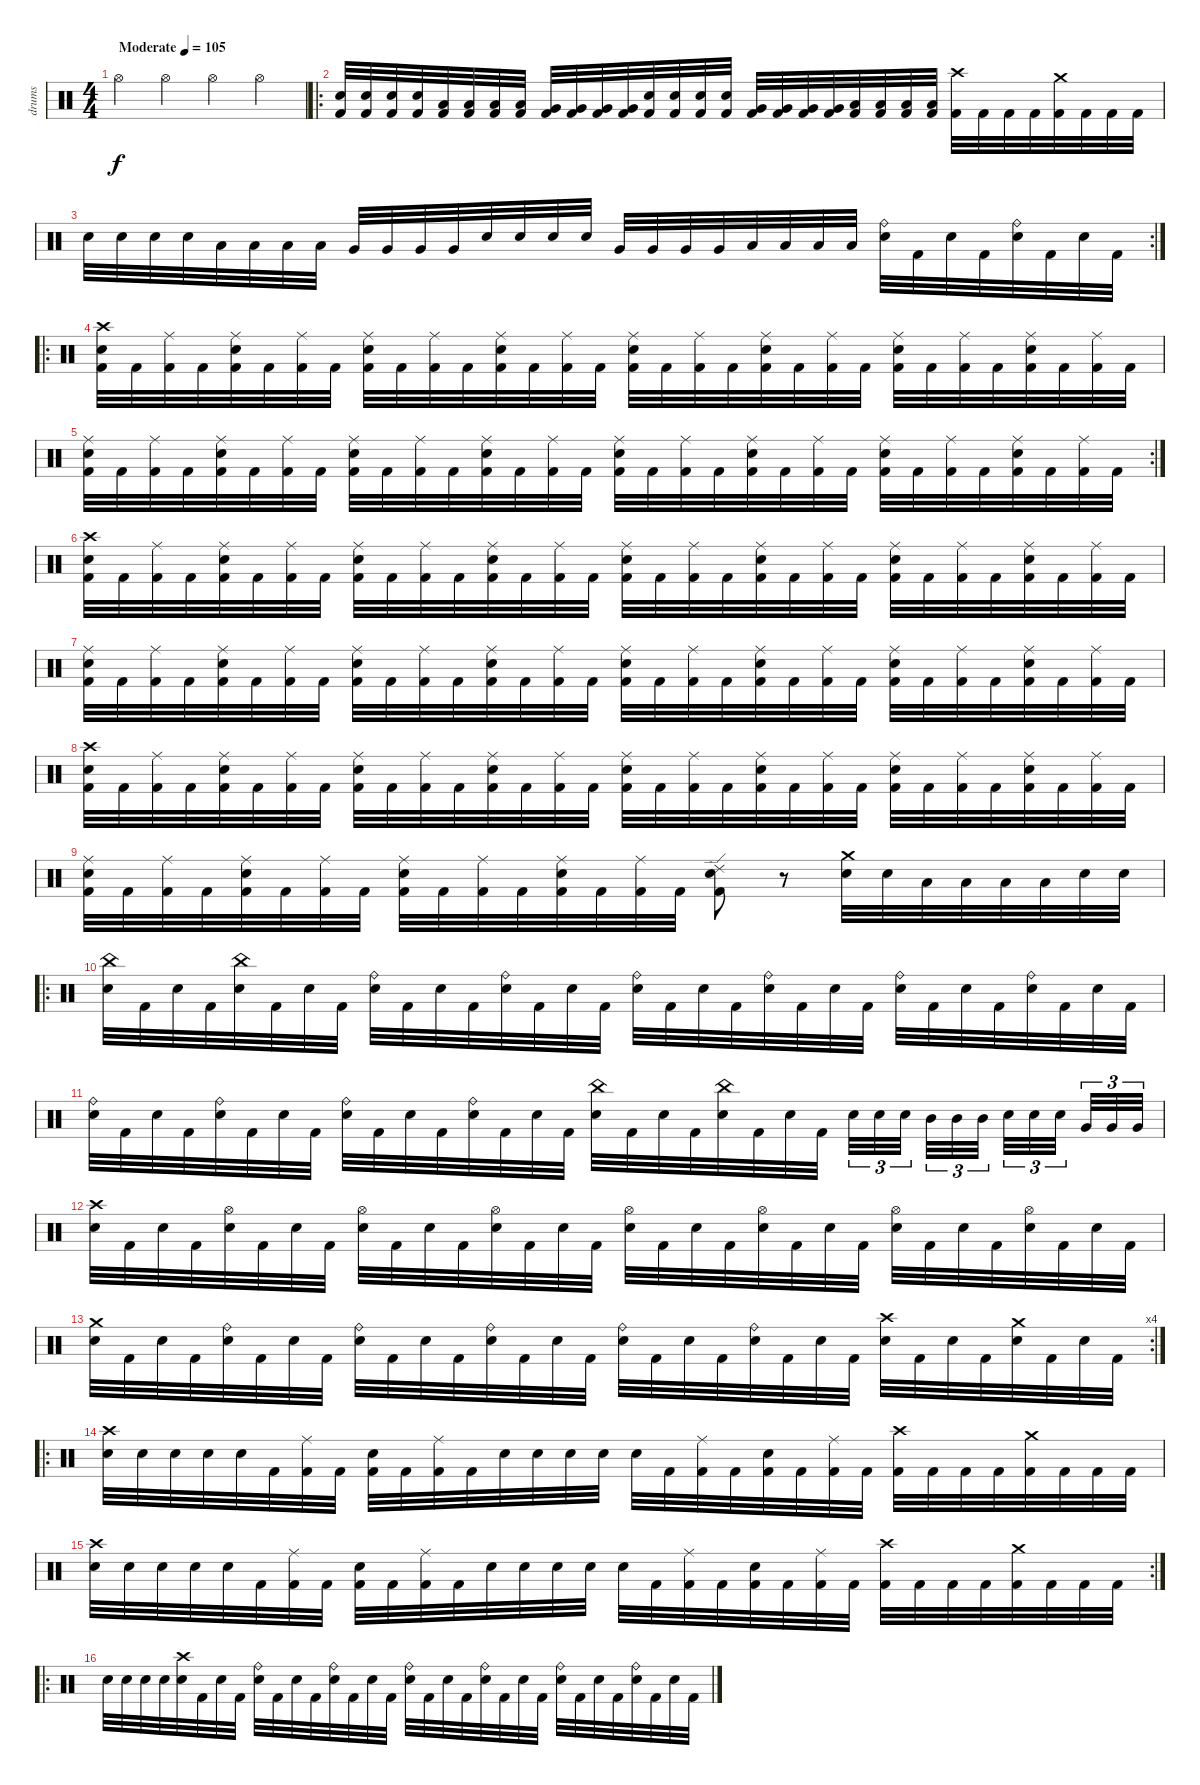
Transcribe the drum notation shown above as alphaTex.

\track ("drums" "drums") {instrument percussion}
\staff {score}
\articulation defaults
\ts (4 4)
\tempo (105 "Moderate")
\clef neutral
\ks c "Hi-Hat (open)".4{dy f} "Hi-Hat (open)".4 "Hi-Hat (open)".4 "Hi-Hat (open)".4
|
\ro
("Snare (hit) 2" "Kick (hit) 2").32 ("Snare (hit) 2" "Kick (hit) 2").32 ("Snare (hit) 2" "Kick (hit) 2").32 ("Snare (hit) 2" "Kick (hit) 2").32 ("Low Tom (hit)" "Kick (hit) 2").32 ("Low Tom (hit)" "Kick (hit) 2").32 ("Low Tom (hit)" "Kick (hit) 2").32 ("Low Tom (hit)" "Kick (hit) 2").32 ("Very Low Tom (hit)" "Kick (hit) 2").32 ("Very Low Tom (hit)" "Kick (hit) 2").32 ("Very Low Tom (hit)" "Kick (hit) 2").32 ("Very Low Tom (hit)" "Kick (hit) 2").32 ("Snare (hit) 2" "Kick (hit) 2").32 ("Snare (hit) 2" "Kick (hit) 2").32 ("Snare (hit) 2" "Kick (hit) 2").32 ("Snare (hit) 2" "Kick (hit) 2").32 ("Very Low Tom (hit)" "Kick (hit) 2").32 ("Very Low Tom (hit)" "Kick (hit) 2").32 ("Very Low Tom (hit)" "Kick (hit) 2").32 ("Very Low Tom (hit)" "Kick (hit) 2").32 ("Low Floor Tom (hit)" "Kick (hit) 2").32 ("Low Floor Tom (hit)" "Kick (hit) 2").32 ("Low Floor Tom (hit)" "Kick (hit) 2").32 ("Low Floor Tom (hit)" "Kick (hit) 2").32 ("Crash high (hit)" "Kick (hit) 2").32 "Kick (hit) 2".32 "Kick (hit) 2".32 "Kick (hit) 2".32 ("Crash medium (hit)" "Kick (hit) 2").32 "Kick (hit) 2".32 "Kick (hit) 2".32 "Kick (hit) 2".32 |
\rc 2 "Snare (hit) 2".32 "Snare (hit) 2".32 "Snare (hit) 2".32 "Snare (hit) 2".32 "Low Tom (hit)".32 "Low Tom (hit)".32 "Low Tom (hit)".32 "Low Tom (hit)".32 "Very Low Tom (hit)".32 "Very Low Tom (hit)".32 "Very Low Tom (hit)".32 "Very Low Tom (hit)".32 "Snare (hit) 2".32 "Snare (hit) 2".32 "Snare (hit) 2".32 "Snare (hit) 2".32 "Very Low Tom (hit)".32 "Very Low Tom (hit)".32 "Very Low Tom (hit)".32 "Very Low Tom (hit)".32 "Low Floor Tom (hit)".32 "Low Floor Tom (hit)".32 "Low Floor Tom (hit)".32 "Low Floor Tom (hit)".32
("Ride (bell)" "Snare (hit) 2").32 "Kick (hit) 2".32 "Snare (hit) 2".32 "Kick (hit) 2".32 ("Ride (bell)" "Snare (hit) 2").32 "Kick (hit) 2".32 "Snare (hit) 2".32 "Kick (hit) 2".32 |
\ro
("Crash high (hit)" "Snare (hit) 2" "Kick (hit) 2").32 "Kick (hit) 2".32 ("Ride (middle)" "Kick (hit) 2").32 "Kick (hit) 2".32 ("Ride (middle)" "Snare (hit) 2" "Kick (hit) 2").32 "Kick (hit) 2".32 ("Ride (middle)" "Kick (hit) 2").32 "Kick (hit) 2".32 ("Ride (middle)" "Snare (hit) 2" "Kick (hit) 2").32 "Kick (hit) 2".32 ("Ride (middle)" "Kick (hit) 2").32 "Kick (hit) 2".32 ("Ride (middle)" "Snare (hit) 2" "Kick (hit) 2").32 "Kick (hit) 2".32 ("Ride (middle)" "Kick (hit) 2").32 "Kick (hit) 2".32 ("Ride (middle)" "Snare (hit) 2" "Kick (hit) 2").32 "Kick (hit) 2".32 ("Ride (middle)" "Kick (hit) 2").32 "Kick (hit) 2".32 ("Ride (middle)" "Snare (hit) 2" "Kick (hit) 2").32 "Kick (hit) 2".32 ("Ride (middle)" "Kick (hit) 2").32 "Kick (hit) 2".32 ("Ride (middle)" "Snare (hit) 2" "Kick (hit) 2").32 "Kick (hit) 2".32 ("Ride (middle)" "Kick (hit) 2").32 "Kick (hit) 2".32 ("Ride (middle)" "Snare (hit) 2" "Kick (hit) 2").32 "Kick (hit) 2".32 ("Ride (middle)" "Kick (hit) 2").32 "Kick (hit) 2".32 |
\rc 2
("Ride (middle)" "Snare (hit) 2" "Kick (hit) 2").32 "Kick (hit) 2".32 ("Ride (middle)" "Kick (hit) 2").32 "Kick (hit) 2".32 ("Ride (middle)" "Snare (hit) 2" "Kick (hit) 2").32 "Kick (hit) 2".32 ("Ride (middle)" "Kick (hit) 2").32 "Kick (hit) 2".32 ("Ride (middle)" "Snare (hit) 2" "Kick (hit) 2").32 "Kick (hit) 2".32 ("Ride (middle)" "Kick (hit) 2").32 "Kick (hit) 2".32 ("Ride (middle)" "Snare (hit) 2" "Kick (hit) 2").32 "Kick (hit) 2".32 ("Ride (middle)" "Kick (hit) 2").32 "Kick (hit) 2".32 ("Ride (middle)" "Snare (hit) 2" "Kick (hit) 2").32 "Kick (hit) 2".32 ("Ride (middle)" "Kick (hit) 2").32 "Kick (hit) 2".32 ("Ride (middle)" "Snare (hit) 2" "Kick (hit) 2").32 "Kick (hit) 2".32 ("Ride (middle)" "Kick (hit) 2").32 "Kick (hit) 2".32 ("Ride (middle)" "Snare (hit) 2" "Kick (hit) 2").32 "Kick (hit) 2".32 ("Ride (middle)" "Kick (hit) 2").32 "Kick (hit) 2".32 ("Ride (middle)" "Snare (hit) 2" "Kick (hit) 2").32 "Kick (hit) 2".32 ("Ride (middle)" "Kick (hit) 2").32 "Kick (hit) 2".32 |
("Crash high (hit)" "Snare (hit) 2" "Kick (hit) 2").32 "Kick (hit) 2".32 ("Ride (middle)" "Kick (hit) 2").32 "Kick (hit) 2".32 ("Ride (middle)" "Snare (hit) 2" "Kick (hit) 2").32 "Kick (hit) 2".32 ("Ride (middle)" "Kick (hit) 2").32 "Kick (hit) 2".32 ("Ride (middle)" "Snare (hit) 2" "Kick (hit) 2").32 "Kick (hit) 2".32 ("Ride (middle)" "Kick (hit) 2").32 "Kick (hit) 2".32 ("Ride (middle)" "Snare (hit) 2" "Kick (hit) 2").32 "Kick (hit) 2".32 ("Ride (middle)" "Kick (hit) 2").32 "Kick (hit) 2".32 ("Ride (middle)" "Snare (hit) 2" "Kick (hit) 2").32 "Kick (hit) 2".32 ("Ride (middle)" "Kick (hit) 2").32 "Kick (hit) 2".32 ("Ride (middle)" "Snare (hit) 2" "Kick (hit) 2").32 "Kick (hit) 2".32 ("Ride (middle)" "Kick (hit) 2").32 "Kick (hit) 2".32 ("Ride (middle)" "Snare (hit) 2" "Kick (hit) 2").32 "Kick (hit) 2".32 ("Ride (middle)" "Kick (hit) 2").32 "Kick (hit) 2".32 ("Ride (middle)" "Snare (hit) 2" "Kick (hit) 2").32 "Kick (hit) 2".32 ("Ride (middle)" "Kick (hit) 2").32 "Kick (hit) 2".32 |
("Ride (middle)" "Snare (hit) 2" "Kick (hit) 2").32 "Kick (hit) 2".32 ("Ride (middle)" "Kick (hit) 2").32 "Kick (hit) 2".32 ("Ride (middle)" "Snare (hit) 2" "Kick (hit) 2").32 "Kick (hit) 2".32 ("Ride (middle)" "Kick (hit) 2").32 "Kick (hit) 2".32 ("Ride (middle)" "Snare (hit) 2" "Kick (hit) 2").32 "Kick (hit) 2".32 ("Ride (middle)" "Kick (hit) 2").32 "Kick (hit) 2".32 ("Ride (middle)" "Snare (hit) 2" "Kick (hit) 2").32 "Kick (hit) 2".32 ("Ride (middle)" "Kick (hit) 2").32 "Kick (hit) 2".32 ("Ride (middle)" "Snare (hit) 2" "Kick (hit) 2").32 "Kick (hit) 2".32 ("Ride (middle)" "Kick (hit) 2").32 "Kick (hit) 2".32 ("Ride (middle)" "Snare (hit) 2" "Kick (hit) 2").32 "Kick (hit) 2".32 ("Ride (middle)" "Kick (hit) 2").32 "Kick (hit) 2".32 ("Ride (middle)" "Snare (hit) 2" "Kick (hit) 2").32 "Kick (hit) 2".32 ("Ride (middle)" "Kick (hit) 2").32 "Kick (hit) 2".32 ("Ride (middle)" "Snare (hit) 2" "Kick (hit) 2").32 "Kick (hit) 2".32 ("Ride (middle)" "Kick (hit) 2").32 "Kick (hit) 2".32 |
("Crash high (hit)" "Snare (hit) 2" "Kick (hit) 2").32 "Kick (hit) 2".32 ("Ride (middle)" "Kick (hit) 2").32 "Kick (hit) 2".32 ("Ride (middle)" "Snare (hit) 2" "Kick (hit) 2").32 "Kick (hit) 2".32 ("Ride (middle)" "Kick (hit) 2").32 "Kick (hit) 2".32 ("Ride (middle)" "Snare (hit) 2" "Kick (hit) 2").32 "Kick (hit) 2".32 ("Ride (middle)" "Kick (hit) 2").32 "Kick (hit) 2".32 ("Ride (middle)" "Snare (hit) 2" "Kick (hit) 2").32 "Kick (hit) 2".32 ("Ride (middle)" "Kick (hit) 2").32 "Kick (hit) 2".32 ("Ride (middle)" "Snare (hit) 2" "Kick (hit) 2").32 "Kick (hit) 2".32 ("Ride (middle)" "Kick (hit) 2").32 "Kick (hit) 2".32 ("Ride (middle)" "Snare (hit) 2" "Kick (hit) 2").32 "Kick (hit) 2".32 ("Ride (middle)" "Kick (hit) 2").32 "Kick (hit) 2".32 ("Ride (middle)" "Snare (hit) 2" "Kick (hit) 2").32 "Kick (hit) 2".32 ("Ride (middle)" "Kick (hit) 2").32 "Kick (hit) 2".32 ("Ride (middle)" "Snare (hit) 2" "Kick (hit) 2").32 "Kick (hit) 2".32 ("Ride (middle)" "Kick (hit) 2").32 "Kick (hit) 2".32 |
("Ride (middle)" "Snare (hit) 2" "Kick (hit) 2").32 "Kick (hit) 2".32 ("Ride (middle)" "Kick (hit) 2").32 "Kick (hit) 2".32 ("Ride (middle)" "Snare (hit) 2" "Kick (hit) 2").32 "Kick (hit) 2".32 ("Ride (middle)" "Kick (hit) 2").32 "Kick (hit) 2".32 ("Ride (middle)" "Snare (hit) 2" "Kick (hit) 2").32 "Kick (hit) 2".32 ("Ride (middle)" "Kick (hit) 2").32 "Kick (hit) 2".32 ("Ride (middle)" "Snare (hit) 2" "Kick (hit) 2").32 "Kick (hit) 2".32 ("Ride (middle)" "Kick (hit) 2").32 "Kick (hit) 2".32 ("Ride (edge) 2" "Snare (hit) 2" "Kick (hit) 2").8 r.8 ("Crash medium (hit)" "Snare (hit) 2").32 "Snare (hit) 2".32 "Low Tom (hit)".32 "Low Tom (hit)".32 "Low Tom (hit)".32 "Low Tom (hit)".32 "Snare (hit) 2".32 "Snare (hit) 2".32 |
\ro
("China (hit)" "Snare (hit) 2").32 "Kick (hit) 2".32 "Snare (hit) 2".32 "Kick (hit) 2".32 ("China (hit)" "Snare (hit) 2").32 "Kick (hit) 2".32 "Snare (hit) 2".32 "Kick (hit) 2".32 ("Ride (bell)" "Snare (hit) 2").32 "Kick (hit) 2".32 "Snare (hit) 2".32 "Kick (hit) 2".32 ("Ride (bell)" "Snare (hit) 2").32 "Kick (hit) 2".32 "Snare (hit) 2".32 "Kick (hit) 2".32 ("Ride (bell)" "Snare (hit) 2").32 "Kick (hit) 2".32 "Snare (hit) 2".32 "Kick (hit) 2".32 ("Ride (bell)" "Snare (hit) 2").32 "Kick (hit) 2".32 "Snare (hit) 2".32 "Kick (hit) 2".32 ("Ride (bell)" "Snare (hit) 2").32 "Kick (hit) 2".32 "Snare (hit) 2".32 "Kick (hit) 2".32 ("Ride (bell)" "Snare (hit) 2").32 "Kick (hit) 2".32 "Snare (hit) 2".32 "Kick (hit) 2".32 |
("Ride (bell)" "Snare (hit) 2").32 "Kick (hit) 2".32 "Snare (hit) 2".32 "Kick (hit) 2".32 ("Ride (bell)" "Snare (hit) 2").32 "Kick (hit) 2".32 "Snare (hit) 2".32 "Kick (hit) 2".32 ("Ride (bell)" "Snare (hit) 2").32 "Kick (hit) 2".32 "Snare (hit) 2".32 "Kick (hit) 2".32 ("Ride (bell)" "Snare (hit) 2").32 "Kick (hit) 2".32 "Snare (hit) 2".32 "Kick (hit) 2".32 ("China (hit)" "Snare (hit) 2").32 "Kick (hit) 2".32 "Snare (hit) 2".32 "Kick (hit) 2".32 ("China (hit)" "Snare (hit) 2").32 "Kick (hit) 2".32 "Snare (hit) 2".32 "Kick (hit) 2".32 "Snare (hit) 2".32{tu (3 2)} "Snare (hit) 2".32{tu (3 2)} "Snare (hit) 2".32{tu (3 2) beam splitsecondary} "Mid Tom (hit)".32{tu (3 2)} "Mid Tom (hit)".32{tu (3 2)} "Mid Tom (hit)".32{tu (3 2) beam splitsecondary} "Snare (hit) 2".32{tu (3 2)} "Snare (hit) 2".32{tu (3 2)} "Snare (hit) 2".32{tu (3 2) beam splitsecondary} "Very Low Tom (hit)".32{tu (3 2)} "Very Low Tom (hit)".32{tu (3 2)} "Very Low Tom (hit)".32{tu (3 2)} |
("Crash high (hit)" "Snare (hit) 2").32 "Kick (hit) 2".32 "Snare (hit) 2".32 "Kick (hit) 2".32 ("Hi-Hat (open)" "Snare (hit) 2").32 "Kick (hit) 2".32 "Snare (hit) 2".32 "Kick (hit) 2".32 ("Hi-Hat (open)" "Snare (hit) 2").32 "Kick (hit) 2".32 "Snare (hit) 2".32 "Kick (hit) 2".32 ("Hi-Hat (open)" "Snare (hit) 2").32 "Kick (hit) 2".32 "Snare (hit) 2".32 "Kick (hit) 2".32 ("Hi-Hat (open)" "Snare (hit) 2").32 "Kick (hit) 2".32 "Snare (hit) 2".32 "Kick (hit) 2".32 ("Hi-Hat (open)" "Snare (hit) 2").32 "Kick (hit) 2".32 "Snare (hit) 2".32 "Kick (hit) 2".32 ("Hi-Hat (open)" "Snare (hit) 2").32 "Kick (hit) 2".32 "Snare (hit) 2".32 "Kick (hit) 2".32 ("Hi-Hat (open)" "Snare (hit) 2").32 "Kick (hit) 2".32 "Snare (hit) 2".32 "Kick (hit) 2".32 |
\rc 4
("Crash medium (hit)" "Snare (hit) 2").32 "Kick (hit) 2".32 "Snare (hit) 2".32 "Kick (hit) 2".32 ("Ride (bell)" "Snare (hit) 2").32 "Kick (hit) 2".32 "Snare (hit) 2".32 "Kick (hit) 2".32 ("Ride (bell)" "Snare (hit) 2").32 "Kick (hit) 2".32 "Snare (hit) 2".32 "Kick (hit) 2".32 ("Ride (bell)" "Snare (hit) 2").32 "Kick (hit) 2".32 "Snare (hit) 2".32 "Kick (hit) 2".32 ("Ride (bell)" "Snare (hit) 2").32 "Kick (hit) 2".32 "Snare (hit) 2".32 "Kick (hit) 2".32 ("Ride (bell)" "Snare (hit) 2").32 "Kick (hit) 2".32 "Snare (hit) 2".32 "Kick (hit) 2".32 ("Crash high (hit)" "Snare (hit) 2").32 "Kick (hit) 2".32 "Snare (hit) 2".32 "Kick (hit) 2".32 ("Crash medium (hit)" "Snare (hit) 2").32 "Kick (hit) 2".32 "Snare (hit) 2".32 "Kick (hit) 2".32 |
\ro
("Crash high (hit)" "Snare (hit) 2").32 "Snare (hit) 2".32 "Snare (hit) 2".32 "Snare (hit) 2".32 "Snare (hit) 2".32 "Kick (hit) 2".32 ("Ride (middle)" "Kick (hit) 2").32 "Kick (hit) 2".32 ("Snare (hit) 2" "Kick (hit) 2").32 "Kick (hit) 2".32 ("Ride (middle)" "Kick (hit) 2").32 "Kick (hit) 2".32 "Snare (hit) 2".32 "Snare (hit) 2".32 "Snare (hit) 2".32 "Snare (hit) 2".32 "Snare (hit) 2".32 "Kick (hit) 2".32 ("Ride (middle)" "Kick (hit) 2").32 "Kick (hit) 2".32 ("Snare (hit) 2" "Kick (hit) 2").32 "Kick (hit) 2".32 ("Ride (middle)" "Kick (hit) 2").32 "Kick (hit) 2".32 ("Crash high (hit)" "Kick (hit) 2").32 "Kick (hit) 2".32 "Kick (hit) 2".32 "Kick (hit) 2".32 ("Crash medium (hit)" "Kick (hit) 2").32 "Kick (hit) 2".32 "Kick (hit) 2".32 "Kick (hit) 2".32 |
\rc 2
("Crash high (hit)" "Snare (hit) 2").32 "Snare (hit) 2".32 "Snare (hit) 2".32 "Snare (hit) 2".32 "Snare (hit) 2".32 "Kick (hit) 2".32 ("Ride (middle)" "Kick (hit) 2").32 "Kick (hit) 2".32 ("Snare (hit) 2" "Kick (hit) 2").32 "Kick (hit) 2".32 ("Ride (middle)" "Kick (hit) 2").32 "Kick (hit) 2".32 "Snare (hit) 2".32 "Snare (hit) 2".32 "Snare (hit) 2".32 "Snare (hit) 2".32 "Snare (hit) 2".32 "Kick (hit) 2".32 ("Ride (middle)" "Kick (hit) 2").32 "Kick (hit) 2".32 ("Snare (hit) 2" "Kick (hit) 2").32 "Kick (hit) 2".32 ("Ride (middle)" "Kick (hit) 2").32 "Kick (hit) 2".32 ("Crash high (hit)" "Kick (hit) 2").32 "Kick (hit) 2".32 "Kick (hit) 2".32 "Kick (hit) 2".32 ("Crash medium (hit)" "Kick (hit) 2").32 "Kick (hit) 2".32 "Kick (hit) 2".32 "Kick (hit) 2".32 |
\ro "Snare (hit) 2".32 "Snare (hit) 2".32 "Snare (hit) 2".32 "Snare (hit) 2".32
("Crash high (hit)" "Snare (hit) 2").32 "Kick (hit) 2".32 "Snare (hit) 2".32 "Kick (hit) 2".32 ("Ride (bell)" "Snare (hit) 2").32 "Kick (hit) 2".32 "Snare (hit) 2".32 "Kick (hit) 2".32 ("Ride (bell)" "Snare (hit) 2").32 "Kick (hit) 2".32 "Snare (hit) 2".32 "Kick (hit) 2".32 ("Ride (bell)" "Snare (hit) 2").32 "Kick (hit) 2".32 "Snare (hit) 2".32 "Kick (hit) 2".32 ("Ride (bell)" "Snare (hit) 2").32 "Kick (hit) 2".32 "Snare (hit) 2".32 "Kick (hit) 2".32 ("Ride (bell)" "Snare (hit) 2").32 "Kick (hit) 2".32 "Snare (hit) 2".32 "Kick (hit) 2".32 ("Ride (bell)" "Snare (hit) 2").32 "Kick (hit) 2".32 "Snare (hit) 2".32 "Kick (hit) 2".32
